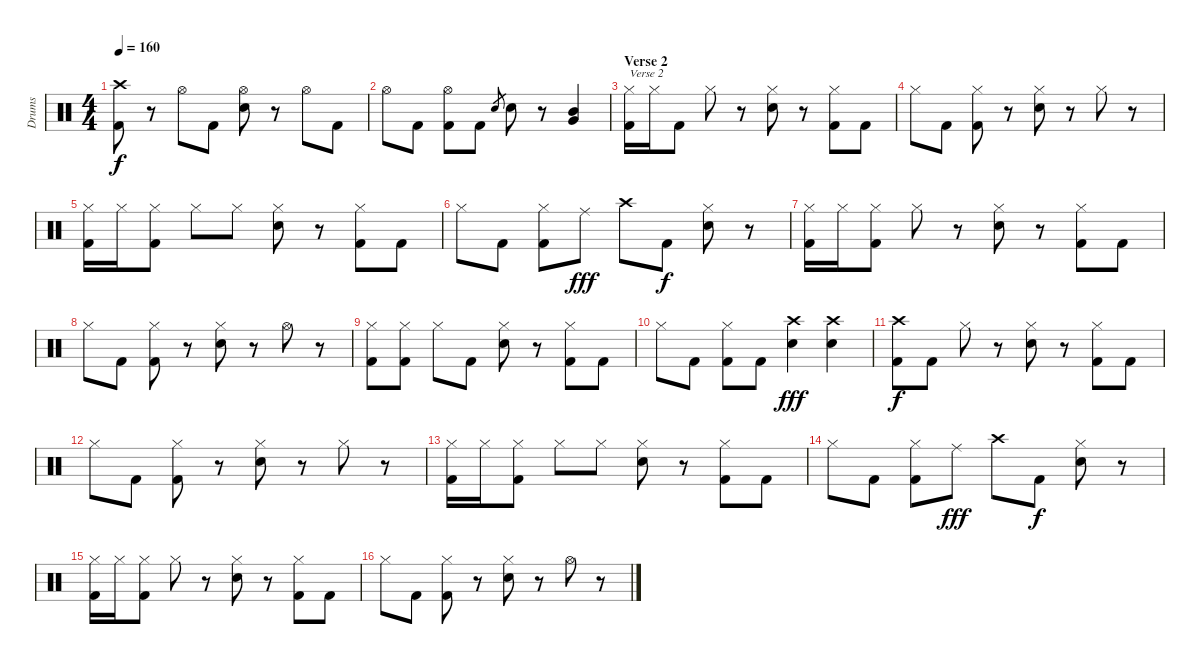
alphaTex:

\track ("Drums" "Drums") {instrument percussion}
\staff {score}
\articulation defaults
\ts (4 4)
\tempo 160
\clef neutral
\ks c
("Crash high (hit)" "Kick (hit) 2").8{dy f} r.8 "Hi-Hat (open)".8 "Kick (hit) 2".8 ("Hi-Hat (open)" "Electric Snare (hit)").8 r.8 "Hi-Hat (open)".8 "Kick (hit) 2".8 |
"Hi-Hat (open)".8 "Kick (hit) 2".8 ("Hi-Hat (open)" "Kick (hit) 2").8 "Kick (hit) 2".8 "Electric Snare (hit)".8{gr} "Electric Snare (hit)".8 r.8 ("Mid Tom (hit)" "Very Low Tom (hit)").4 |
\section ("" "Verse 2")
("Hi-Hat (closed)" "Kick (hit) 2").16{txt "Verse 2"} "Hi-Hat (closed)".16 "Kick (hit) 2".8 "Hi-Hat (closed)".8 r.8 ("Hi-Hat (closed)" "Electric Snare (hit)").8 r.8 ("Hi-Hat (closed)" "Kick (hit) 2").8 "Kick (hit) 2".8 |
"Hi-Hat (closed)".8 "Kick (hit) 2".8 ("Hi-Hat (closed)" "Kick (hit) 2").8 r.8 ("Hi-Hat (closed)" "Electric Snare (hit)").8 r.8 "Hi-Hat (closed)".8 r.8 |
("Hi-Hat (closed)" "Kick (hit) 2").16 "Hi-Hat (closed)".16 ("Hi-Hat (closed)" "Kick (hit) 2").8 "Hi-Hat (closed)".8 "Hi-Hat (closed)".8 ("Hi-Hat (closed)" "Electric Snare (hit)").8 r.8 ("Hi-Hat (closed)" "Kick (hit) 2").8 "Kick (hit) 2".8 |
"Hi-Hat (closed)".8 "Kick (hit) 2".8 ("Hi-Hat (closed)" "Kick (hit) 2").8 "Ride (middle)".8{dy fff} "Crash high (hit)".8 "Kick (hit) 2".8{dy f} ("Hi-Hat (closed)" "Electric Snare (hit)").8 r.8 |
("Hi-Hat (closed)" "Kick (hit) 2").16 "Hi-Hat (closed)".16 ("Hi-Hat (closed)" "Kick (hit) 2").8 "Hi-Hat (closed)".8 r.8 ("Hi-Hat (closed)" "Electric Snare (hit)").8 r.8 ("Hi-Hat (closed)" "Kick (hit) 2").8 "Kick (hit) 2".8 |
"Hi-Hat (closed)".8 "Kick (hit) 2".8 ("Hi-Hat (closed)" "Kick (hit) 2").8 r.8 ("Hi-Hat (closed)" "Electric Snare (hit)").8 r.8 "Hi-Hat (open)".8 r.8 |
("Hi-Hat (closed)" "Kick (hit) 2").8 ("Hi-Hat (closed)" "Kick (hit) 2").8 "Hi-Hat (closed)".8 "Kick (hit) 2".8 ("Hi-Hat (closed)" "Electric Snare (hit)").8 r.8 ("Hi-Hat (closed)" "Kick (hit) 2").8 "Kick (hit) 2".8 |
"Hi-Hat (closed)".8 "Kick (hit) 2".8 ("Hi-Hat (closed)" "Kick (hit) 2").8 "Kick (hit) 2".8 ("Crash high (hit)" "Electric Snare (hit)").4{dy fff} ("Crash high (hit)" "Electric Snare (hit)").4 |
("Crash high (hit)" "Kick (hit) 2").8{dy f} "Kick (hit) 2".8 "Hi-Hat (closed)".8 r.8 ("Hi-Hat (closed)" "Electric Snare (hit)").8 r.8 ("Hi-Hat (closed)" "Kick (hit) 2").8 "Kick (hit) 2".8 |
"Hi-Hat (closed)".8 "Kick (hit) 2".8 ("Hi-Hat (closed)" "Kick (hit) 2").8 r.8 ("Hi-Hat (closed)" "Electric Snare (hit)").8 r.8 "Hi-Hat (closed)".8 r.8 |
("Hi-Hat (closed)" "Kick (hit) 2").16 "Hi-Hat (closed)".16 ("Hi-Hat (closed)" "Kick (hit) 2").8 "Hi-Hat (closed)".8 "Hi-Hat (closed)".8 ("Hi-Hat (closed)" "Electric Snare (hit)").8 r.8 ("Hi-Hat (closed)" "Kick (hit) 2").8 "Kick (hit) 2".8 |
"Hi-Hat (closed)".8 "Kick (hit) 2".8 ("Hi-Hat (closed)" "Kick (hit) 2").8 "Ride (middle)".8{dy fff} "Crash high (hit)".8 "Kick (hit) 2".8{dy f} ("Hi-Hat (closed)" "Electric Snare (hit)").8 r.8 |
("Hi-Hat (closed)" "Kick (hit) 2").16 "Hi-Hat (closed)".16 ("Hi-Hat (closed)" "Kick (hit) 2").8 "Hi-Hat (closed)".8 r.8 ("Hi-Hat (closed)" "Electric Snare (hit)").8 r.8 ("Hi-Hat (closed)" "Kick (hit) 2").8 "Kick (hit) 2".8 |
"Hi-Hat (closed)".8 "Kick (hit) 2".8 ("Hi-Hat (closed)" "Kick (hit) 2").8 r.8 ("Hi-Hat (closed)" "Electric Snare (hit)").8 r.8 "Hi-Hat (open)".8 r.8
